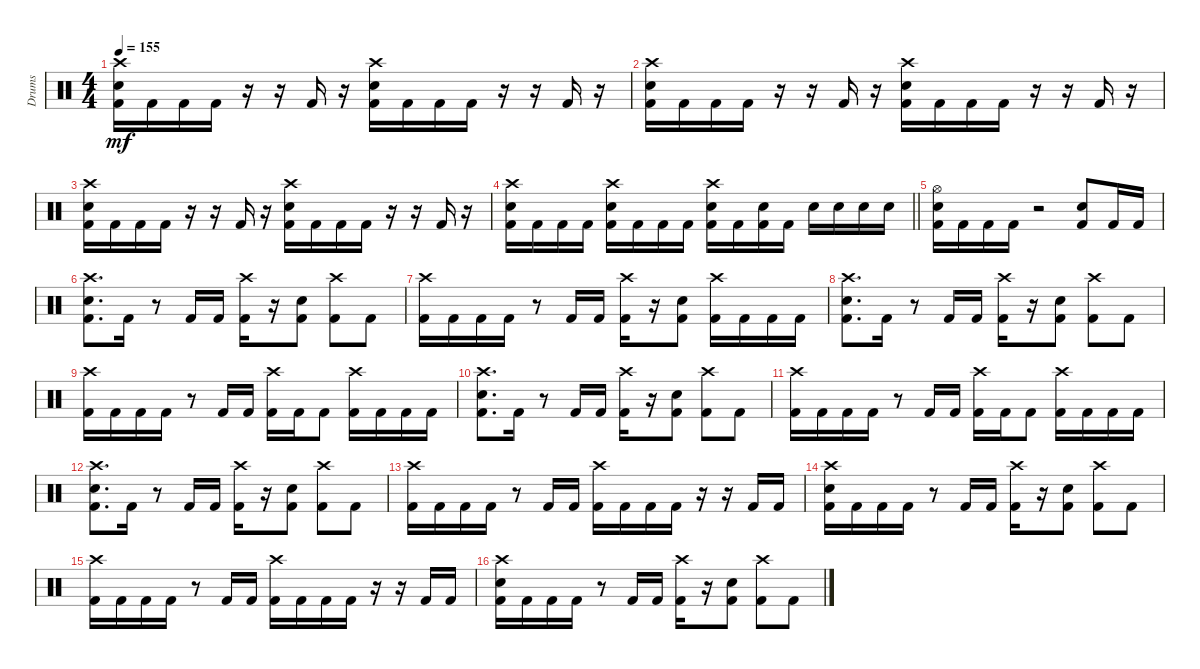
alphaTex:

\track ("Drums" "Drums") {instrument percussion}
\staff {score}
\articulation defaults
\ts (4 4)
\tempo 155
\clef neutral
\ks c
("Kick (hit) 2" "Electric Snare (hit)" "Crash high (hit)").16{dy mf} "Kick (hit) 2".16 "Kick (hit) 2".16 "Kick (hit) 2".16 r.16 r.16 "Kick (hit) 2".16 r.16 ("Kick (hit) 2" "Electric Snare (hit)" "Crash high (hit)").16 "Kick (hit) 2".16 "Kick (hit) 2".16 "Kick (hit) 2".16 r.16 r.16 "Kick (hit) 2".16 r.16 |
("Kick (hit) 2" "Electric Snare (hit)" "Crash high (hit)").16 "Kick (hit) 2".16 "Kick (hit) 2".16 "Kick (hit) 2".16 r.16 r.16 "Kick (hit) 2".16 r.16 ("Kick (hit) 2" "Electric Snare (hit)" "Crash high (hit)").16 "Kick (hit) 2".16 "Kick (hit) 2".16 "Kick (hit) 2".16 r.16 r.16 "Kick (hit) 2".16 r.16 |
("Kick (hit) 2" "Electric Snare (hit)" "Crash high (hit)").16 "Kick (hit) 2".16 "Kick (hit) 2".16 "Kick (hit) 2".16 r.16 r.16 "Kick (hit) 2".16 r.16 ("Kick (hit) 2" "Electric Snare (hit)" "Crash high (hit)").16 "Kick (hit) 2".16 "Kick (hit) 2".16 "Kick (hit) 2".16 r.16 r.16 "Kick (hit) 2".16 r.16 |
\barLineRight lightlight
("Kick (hit) 2" "Electric Snare (hit)" "Crash high (hit)").16 "Kick (hit) 2".16 "Kick (hit) 2".16 "Kick (hit) 2".16 ("Kick (hit) 2" "Electric Snare (hit)" "Crash high (hit)").16 "Kick (hit) 2".16 "Kick (hit) 2".16 "Kick (hit) 2".16 ("Kick (hit) 2" "Electric Snare (hit)" "Crash high (hit)").16 "Kick (hit) 2".16 ("Kick (hit) 2" "Electric Snare (hit)").16 "Kick (hit) 2".16 "Electric Snare (hit)".16 "Electric Snare (hit)".16 "Electric Snare (hit)".16 "Electric Snare (hit)".16 |
\section ("" "")
("Kick (hit) 2" "Hi-Hat (open)" "Electric Snare (hit)").16 "Kick (hit) 2".16 "Kick (hit) 2".16 "Kick (hit) 2".16 r.2 ("Kick (hit) 2" "Electric Snare (hit)").8 "Kick (hit) 2".16 "Kick (hit) 2".16 |
("Kick (hit) 2" "Electric Snare (hit)" "Crash high (hit)").8{d} "Kick (hit) 2".16 r.8 "Kick (hit) 2".16 "Kick (hit) 2".16 ("Kick (hit) 2" "Crash high (hit)").16 r.16 ("Kick (hit) 2" "Electric Snare (hit)").8 ("Kick (hit) 2" "Crash high (hit)").8 "Kick (hit) 2".8 |
("Kick (hit) 2" "Crash high (hit)").16 "Kick (hit) 2".16 "Kick (hit) 2".16 "Kick (hit) 2".16 r.8 "Kick (hit) 2".16 "Kick (hit) 2".16 ("Kick (hit) 2" "Crash high (hit)").16 r.16 ("Kick (hit) 2" "Electric Snare (hit)").8 ("Kick (hit) 2" "Crash high (hit)").16 "Kick (hit) 2".16 "Kick (hit) 2".16 "Kick (hit) 2".16 |
("Kick (hit) 2" "Electric Snare (hit)" "Crash high (hit)").8{d} "Kick (hit) 2".16 r.8 "Kick (hit) 2".16 "Kick (hit) 2".16 ("Kick (hit) 2" "Crash high (hit)").16 r.16 ("Kick (hit) 2" "Electric Snare (hit)").8 ("Kick (hit) 2" "Crash high (hit)").8 "Kick (hit) 2".8 |
("Kick (hit) 2" "Crash high (hit)").16 "Kick (hit) 2".16 "Kick (hit) 2".16 "Kick (hit) 2".16 r.8 "Kick (hit) 2".16 "Kick (hit) 2".16 ("Kick (hit) 2" "Crash high (hit)").16 "Kick (hit) 2".16 "Kick (hit) 2".8 ("Kick (hit) 2" "Crash high (hit)").16 "Kick (hit) 2".16 "Kick (hit) 2".16 "Kick (hit) 2".16 |
("Kick (hit) 2" "Electric Snare (hit)" "Crash high (hit)").8{d} "Kick (hit) 2".16 r.8 "Kick (hit) 2".16 "Kick (hit) 2".16 ("Kick (hit) 2" "Crash high (hit)").16 r.16 ("Kick (hit) 2" "Electric Snare (hit)").8 ("Kick (hit) 2" "Crash high (hit)").8 "Kick (hit) 2".8 |
("Kick (hit) 2" "Crash high (hit)").16 "Kick (hit) 2".16 "Kick (hit) 2".16 "Kick (hit) 2".16 r.8 "Kick (hit) 2".16 "Kick (hit) 2".16 ("Kick (hit) 2" "Crash high (hit)").16 "Kick (hit) 2".16 "Kick (hit) 2".8 ("Kick (hit) 2" "Crash high (hit)").16 "Kick (hit) 2".16 "Kick (hit) 2".16 "Kick (hit) 2".16 |
("Kick (hit) 2" "Electric Snare (hit)" "Crash high (hit)").8{d} "Kick (hit) 2".16 r.8 "Kick (hit) 2".16 "Kick (hit) 2".16 ("Kick (hit) 2" "Crash high (hit)").16 r.16 ("Kick (hit) 2" "Electric Snare (hit)").8 ("Kick (hit) 2" "Crash high (hit)").8 "Kick (hit) 2".8 |
("Kick (hit) 2" "Crash high (hit)").16 "Kick (hit) 2".16 "Kick (hit) 2".16 "Kick (hit) 2".16 r.8 "Kick (hit) 2".16 "Kick (hit) 2".16 ("Kick (hit) 2" "Crash high (hit)").16 "Kick (hit) 2".16 "Kick (hit) 2".16 "Kick (hit) 2".16 r.16 r.16 "Kick (hit) 2".16 "Kick (hit) 2".16 |
("Kick (hit) 2" "Electric Snare (hit)" "Crash high (hit)").16 "Kick (hit) 2".16 "Kick (hit) 2".16 "Kick (hit) 2".16 r.8 "Kick (hit) 2".16 "Kick (hit) 2".16 ("Kick (hit) 2" "Crash high (hit)").16 r.16 ("Kick (hit) 2" "Electric Snare (hit)").8 ("Kick (hit) 2" "Crash high (hit)").8 "Kick (hit) 2".8 |
("Kick (hit) 2" "Crash high (hit)").16 "Kick (hit) 2".16 "Kick (hit) 2".16 "Kick (hit) 2".16 r.8 "Kick (hit) 2".16 "Kick (hit) 2".16 ("Kick (hit) 2" "Crash high (hit)").16 "Kick (hit) 2".16 "Kick (hit) 2".16 "Kick (hit) 2".16 r.16 r.16 "Kick (hit) 2".16 "Kick (hit) 2".16 |
("Kick (hit) 2" "Electric Snare (hit)" "Crash high (hit)").16 "Kick (hit) 2".16 "Kick (hit) 2".16 "Kick (hit) 2".16 r.8 "Kick (hit) 2".16 "Kick (hit) 2".16 ("Kick (hit) 2" "Crash high (hit)").16 r.16 ("Kick (hit) 2" "Electric Snare (hit)").8 ("Kick (hit) 2" "Crash high (hit)").8 "Kick (hit) 2".8
